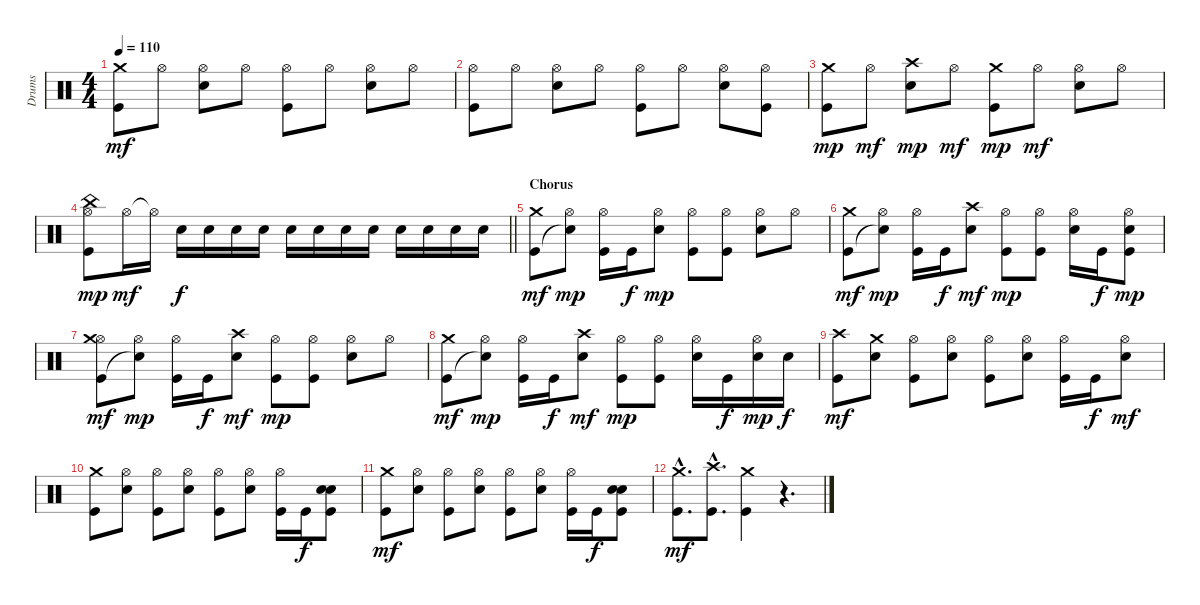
\track ("Drums" "Drums") {instrument percussion}
\staff {score}
\articulation defaults
\ts (4 4)
\tempo 110
\clef neutral
\ks c
("Kick (hit)" "Crash medium (hit)").8{dy mf} "Hi-Hat (open)".8 ("Electric Snare (hit)" "Hi-Hat (open)").8 "Hi-Hat (open)".8 ("Kick (hit)" "Hi-Hat (open)").8 "Hi-Hat (open)".8 ("Electric Snare (hit)" "Hi-Hat (open)").8 "Hi-Hat (open)".8 |
("Kick (hit)" "Hi-Hat (open)").8 "Hi-Hat (open)".8 ("Electric Snare (hit)" "Hi-Hat (open)").8 "Hi-Hat (open)".8 ("Kick (hit)" "Hi-Hat (open)").8 "Hi-Hat (open)".8 ("Electric Snare (hit)" "Hi-Hat (open)").8 ("Kick (hit)" "Hi-Hat (open)").8 |
("Kick (hit)" "Crash medium (hit)").8{dy mp} "Hi-Hat (open)".8{dy mf} ("Electric Snare (hit)" "Crash high (hit)").8{dy mp} "Hi-Hat (open)".8{dy mf} ("Kick (hit)" "Crash medium (hit)").8{dy mp} "Hi-Hat (open)".8{dy mf} ("Electric Snare (hit)" "Hi-Hat (open)").8 "Hi-Hat (open)".8 |
\barLineRight lightlight
("Kick (hit)" "Hi-Hat (open)" "China (hit)").8{dy mp} "Hi-Hat (open)".16{dy mf} "Hi-Hat (open)"{t}.16 "Electric Snare (hit)".16{dy f} "Electric Snare (hit)".16 "Electric Snare (hit)".16 "Electric Snare (hit)".16 "Electric Snare (hit)".16 "Electric Snare (hit)".16 "Electric Snare (hit)".16 "Electric Snare (hit)".16 "Electric Snare (hit)".16 "Electric Snare (hit)".16 "Electric Snare (hit)".16 "Electric Snare (hit)".16 |
\section ("" "Chorus")
("Kick (hit)" "Crash medium (hit)").8{dy mf} ("Snare (hit)"{t} "Hi-Hat (open)").8{dy mp} ("Kick (hit)" "Hi-Hat (open)").16 "Kick (hit)".16{dy f} ("Electric Snare (hit)" "Hi-Hat (open)").8{dy mp} ("Kick (hit)" "Hi-Hat (open)").8 ("Kick (hit)" "Hi-Hat (open)").8 ("Electric Snare (hit)" "Hi-Hat (open)").8 "Hi-Hat (open)".8 |
("Kick (hit)" "Crash medium (hit)").8{dy mf} ("Snare (hit)"{t} "Hi-Hat (open)").8{dy mp} ("Kick (hit)" "Hi-Hat (open)").16 "Kick (hit)".16{dy f} ("Electric Snare (hit)" "Crash high (hit)").8{dy mf} ("Kick (hit)" "Hi-Hat (open)").8{dy mp} ("Kick (hit)" "Hi-Hat (open)").8 ("Snare (hit) 2" "Hi-Hat (open)").16 "Kick (hit)".16{dy f} ("Kick (hit)" "Snare (hit) 2" "Hi-Hat (open)").8{dy mp} |
("Kick (hit)" "Hi-Hat (open)" "Crash medium (hit)").8{dy mf} ("Snare (hit)"{t} "Hi-Hat (open)").8{dy mp} ("Kick (hit)" "Hi-Hat (open)").16 "Kick (hit)".16{dy f} ("Electric Snare (hit)" "Crash high (hit)").8{dy mf} ("Kick (hit)" "Hi-Hat (open)").8{dy mp} ("Kick (hit)" "Hi-Hat (open)").8 ("Electric Snare (hit)" "Hi-Hat (open)").8 "Hi-Hat (open)".8 |
("Kick (hit)" "Crash medium (hit)").8{dy mf} ("Snare (hit)"{t} "Hi-Hat (open)").8{dy mp} ("Kick (hit)" "Hi-Hat (open)").16 "Kick (hit)".16{dy f} ("Electric Snare (hit)" "Crash high (hit)").8{dy mf} ("Kick (hit)" "Hi-Hat (open)").8{dy mp} ("Kick (hit)" "Hi-Hat (open)").8 ("Snare (hit) 2" "Hi-Hat (open)").16 "Kick (hit)".16{dy f} ("Snare (hit) 2" "Hi-Hat (open)").16{dy mp} "Snare (hit) 2".16{dy f} |
("Kick (hit)" "Crash high (hit)").8{dy mf} ("Electric Snare (hit)" "Crash medium (hit)").8 ("Kick (hit)" "Hi-Hat (open)").8 ("Electric Snare (hit)" "Hi-Hat (open)").8 ("Kick (hit)" "Hi-Hat (open)").8 ("Electric Snare (hit)" "Hi-Hat (open)").8 ("Kick (hit)" "Hi-Hat (open)").16 "Kick (hit)".16{dy f} ("Electric Snare (hit)" "Hi-Hat (open)").8{dy mf} |
("Kick (hit)" "Crash medium (hit)").8 ("Electric Snare (hit)" "Hi-Hat (open)").8 ("Kick (hit)" "Hi-Hat (open)").8 ("Electric Snare (hit)" "Hi-Hat (open)").8 ("Kick (hit)" "Hi-Hat (open)").8 ("Electric Snare (hit)" "Hi-Hat (open)").8 ("Kick (hit)" "Hi-Hat (open)").16 "Kick (hit)".16{dy f} ("Kick (hit)" "Electric Snare (hit)" "Snare (hit) 2").8 |
("Kick (hit)" "Crash medium (hit)").8{dy mf} ("Electric Snare (hit)" "Hi-Hat (open)").8 ("Kick (hit)" "Hi-Hat (open)").8 ("Electric Snare (hit)" "Hi-Hat (open)").8 ("Kick (hit)" "Hi-Hat (open)").8 ("Electric Snare (hit)" "Hi-Hat (open)").8 ("Kick (hit)" "Hi-Hat (open)").16 "Kick (hit)".16{dy f} ("Kick (hit)" "Electric Snare (hit)" "Snare (hit) 2").8 |
("Kick (hit)"{hac} "Crash medium (hit)"{hac}).8{d dy mf} ("Kick (hit)"{hac} "Crash high (hit)"{hac}).8{d} ("Kick (hit)" "Crash medium (hit)").4 r.4{d}
